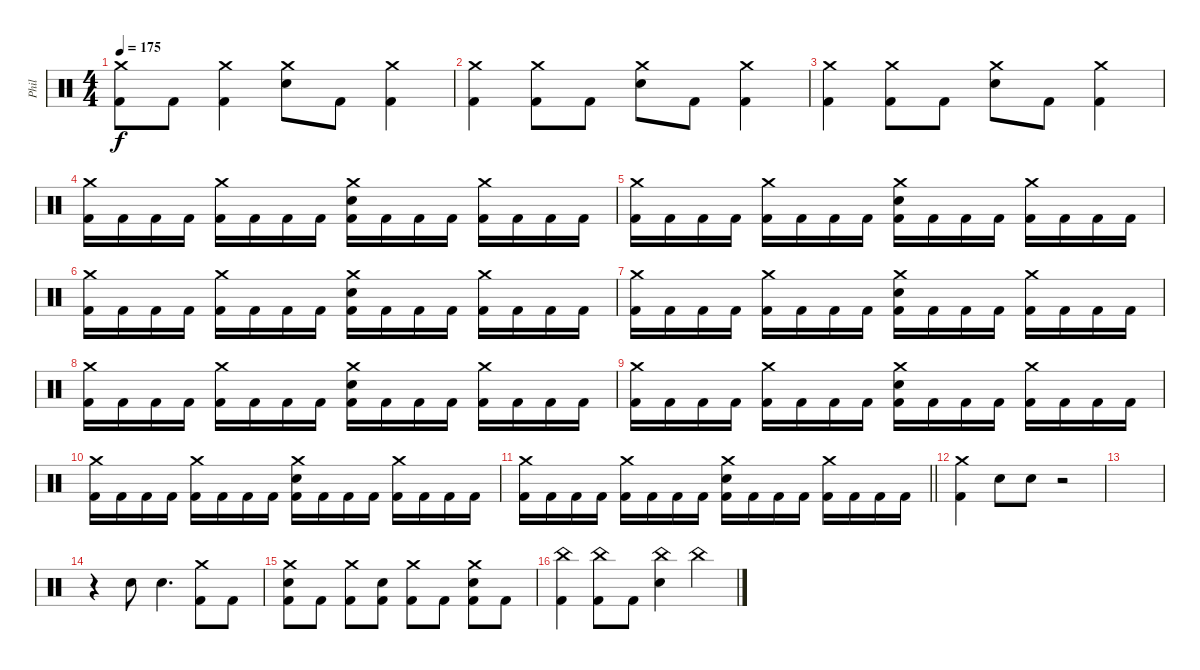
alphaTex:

\track ("Phil" "Phil") {instrument percussion}
\staff {score}
\articulation defaults
\ts (4 4)
\tempo 175
\clef neutral
\ks c
("Crash medium (hit)" "Kick (hit) 2").8{dy f} "Kick (hit) 2".8 ("Crash medium (hit)" "Kick (hit) 2").4 ("Crash medium (hit)" "Electric Snare (hit)").8 "Kick (hit) 2".8 ("Crash medium (hit)" "Kick (hit) 2").4 |
("Crash medium (hit)" "Kick (hit) 2").4 ("Crash medium (hit)" "Kick (hit) 2").8 "Kick (hit) 2".8 ("Crash medium (hit)" "Electric Snare (hit)").8 "Kick (hit) 2".8 ("Crash medium (hit)" "Kick (hit) 2").4 |
("Crash medium (hit)" "Kick (hit) 2").4 ("Crash medium (hit)" "Kick (hit) 2").8 "Kick (hit) 2".8 ("Crash medium (hit)" "Electric Snare (hit)").8 "Kick (hit) 2".8 ("Crash medium (hit)" "Kick (hit) 2").4 |
("Crash medium (hit)" "Kick (hit) 2").16 "Kick (hit) 2".16 "Kick (hit) 2".16 "Kick (hit) 2".16 ("Crash medium (hit)" "Kick (hit) 2").16 "Kick (hit) 2".16 "Kick (hit) 2".16 "Kick (hit) 2".16 ("Crash medium (hit)" "Electric Snare (hit)" "Kick (hit) 2").16 "Kick (hit) 2".16 "Kick (hit) 2".16 "Kick (hit) 2".16 ("Crash medium (hit)" "Kick (hit) 2").16 "Kick (hit) 2".16 "Kick (hit) 2".16 "Kick (hit) 2".16 |
("Crash medium (hit)" "Kick (hit) 2").16 "Kick (hit) 2".16 "Kick (hit) 2".16 "Kick (hit) 2".16 ("Crash medium (hit)" "Kick (hit) 2").16 "Kick (hit) 2".16 "Kick (hit) 2".16 "Kick (hit) 2".16 ("Crash medium (hit)" "Electric Snare (hit)" "Kick (hit) 2").16 "Kick (hit) 2".16 "Kick (hit) 2".16 "Kick (hit) 2".16 ("Crash medium (hit)" "Kick (hit) 2").16 "Kick (hit) 2".16 "Kick (hit) 2".16 "Kick (hit) 2".16 |
("Crash medium (hit)" "Kick (hit) 2").16 "Kick (hit) 2".16 "Kick (hit) 2".16 "Kick (hit) 2".16 ("Crash medium (hit)" "Kick (hit) 2").16 "Kick (hit) 2".16 "Kick (hit) 2".16 "Kick (hit) 2".16 ("Crash medium (hit)" "Electric Snare (hit)" "Kick (hit) 2").16 "Kick (hit) 2".16 "Kick (hit) 2".16 "Kick (hit) 2".16 ("Crash medium (hit)" "Kick (hit) 2").16 "Kick (hit) 2".16 "Kick (hit) 2".16 "Kick (hit) 2".16 |
("Crash medium (hit)" "Kick (hit) 2").16 "Kick (hit) 2".16 "Kick (hit) 2".16 "Kick (hit) 2".16 ("Crash medium (hit)" "Kick (hit) 2").16 "Kick (hit) 2".16 "Kick (hit) 2".16 "Kick (hit) 2".16 ("Crash medium (hit)" "Electric Snare (hit)" "Kick (hit) 2").16 "Kick (hit) 2".16 "Kick (hit) 2".16 "Kick (hit) 2".16 ("Crash medium (hit)" "Kick (hit) 2").16 "Kick (hit) 2".16 "Kick (hit) 2".16 "Kick (hit) 2".16 |
("Crash medium (hit)" "Kick (hit) 2").16 "Kick (hit) 2".16 "Kick (hit) 2".16 "Kick (hit) 2".16 ("Crash medium (hit)" "Kick (hit) 2").16 "Kick (hit) 2".16 "Kick (hit) 2".16 "Kick (hit) 2".16 ("Crash medium (hit)" "Electric Snare (hit)" "Kick (hit) 2").16 "Kick (hit) 2".16 "Kick (hit) 2".16 "Kick (hit) 2".16 ("Crash medium (hit)" "Kick (hit) 2").16 "Kick (hit) 2".16 "Kick (hit) 2".16 "Kick (hit) 2".16 |
("Crash medium (hit)" "Kick (hit) 2").16 "Kick (hit) 2".16 "Kick (hit) 2".16 "Kick (hit) 2".16 ("Crash medium (hit)" "Kick (hit) 2").16 "Kick (hit) 2".16 "Kick (hit) 2".16 "Kick (hit) 2".16 ("Crash medium (hit)" "Electric Snare (hit)" "Kick (hit) 2").16 "Kick (hit) 2".16 "Kick (hit) 2".16 "Kick (hit) 2".16 ("Crash medium (hit)" "Kick (hit) 2").16 "Kick (hit) 2".16 "Kick (hit) 2".16 "Kick (hit) 2".16 |
("Crash medium (hit)" "Kick (hit) 2").16 "Kick (hit) 2".16 "Kick (hit) 2".16 "Kick (hit) 2".16 ("Crash medium (hit)" "Kick (hit) 2").16 "Kick (hit) 2".16 "Kick (hit) 2".16 "Kick (hit) 2".16 ("Crash medium (hit)" "Electric Snare (hit)" "Kick (hit) 2").16 "Kick (hit) 2".16 "Kick (hit) 2".16 "Kick (hit) 2".16 ("Crash medium (hit)" "Kick (hit) 2").16 "Kick (hit) 2".16 "Kick (hit) 2".16 "Kick (hit) 2".16 |
\barLineRight lightlight
("Crash medium (hit)" "Kick (hit) 2").16 "Kick (hit) 2".16 "Kick (hit) 2".16 "Kick (hit) 2".16 ("Crash medium (hit)" "Kick (hit) 2").16 "Kick (hit) 2".16 "Kick (hit) 2".16 "Kick (hit) 2".16 ("Crash medium (hit)" "Electric Snare (hit)" "Kick (hit) 2").16 "Kick (hit) 2".16 "Kick (hit) 2".16 "Kick (hit) 2".16 ("Crash medium (hit)" "Kick (hit) 2").16 "Kick (hit) 2".16 "Kick (hit) 2".16 "Kick (hit) 2".16 |
\section ("" "")
("Crash medium (hit)" "Kick (hit) 2").4 "Electric Snare (hit)".8 "Electric Snare (hit)".8 r.2 |
|
r.4 "Electric Snare (hit)".8 "Electric Snare (hit)".4{d} ("Crash medium (hit)" "Kick (hit) 2").8 "Kick (hit) 2".8 |
("Crash medium (hit)" "Electric Snare (hit)" "Kick (hit) 2").8 "Kick (hit) 2".8 ("Crash medium (hit)" "Kick (hit) 2").8 ("Electric Snare (hit)" "Kick (hit) 2").8 ("Crash medium (hit)" "Kick (hit) 2").8 "Kick (hit) 2".8 ("Crash medium (hit)" "Electric Snare (hit)" "Kick (hit) 2").8 "Kick (hit) 2".8 |
("China (hit)" "Kick (hit) 2").4 ("China (hit)" "Kick (hit) 2").8 "Kick (hit) 2".8 ("China (hit)" "Electric Snare (hit)").4 "China (hit)".4
